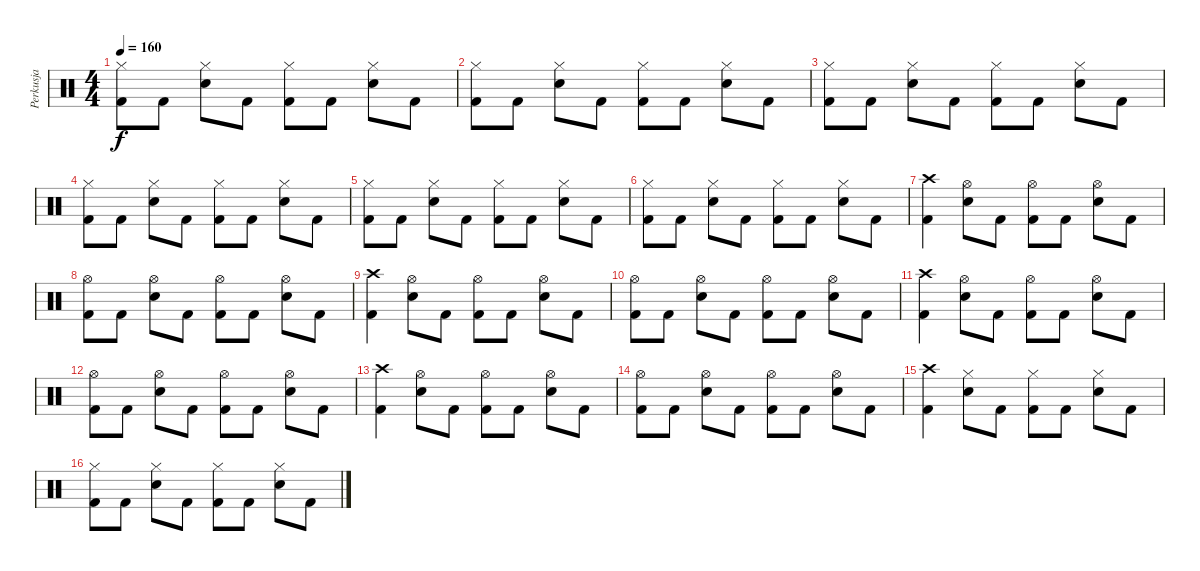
\track ("Perkusja" "Perkusja") {instrument percussion}
\staff {score}
\articulation defaults
\ts (4 4)
\tempo 160
\clef neutral
\ks c
("Hi-Hat (closed)" "Kick (hit) 2").8{dy f} "Kick (hit) 2".8 ("Hi-Hat (closed)" "Electric Snare (hit)").8 "Kick (hit) 2".8 ("Hi-Hat (closed)" "Kick (hit) 2").8 "Kick (hit) 2".8 ("Hi-Hat (closed)" "Electric Snare (hit)").8 "Kick (hit) 2".8 |
("Hi-Hat (closed)" "Kick (hit) 2").8 "Kick (hit) 2".8 ("Hi-Hat (closed)" "Electric Snare (hit)").8 "Kick (hit) 2".8 ("Hi-Hat (closed)" "Kick (hit) 2").8 "Kick (hit) 2".8 ("Hi-Hat (closed)" "Electric Snare (hit)").8 "Kick (hit) 2".8 |
("Hi-Hat (closed)" "Kick (hit) 2").8 "Kick (hit) 2".8 ("Hi-Hat (closed)" "Electric Snare (hit)").8 "Kick (hit) 2".8 ("Hi-Hat (closed)" "Kick (hit) 2").8 "Kick (hit) 2".8 ("Hi-Hat (closed)" "Electric Snare (hit)").8 "Kick (hit) 2".8 |
("Hi-Hat (closed)" "Kick (hit) 2").8 "Kick (hit) 2".8 ("Hi-Hat (closed)" "Electric Snare (hit)").8 "Kick (hit) 2".8 ("Hi-Hat (closed)" "Kick (hit) 2").8 "Kick (hit) 2".8 ("Hi-Hat (closed)" "Electric Snare (hit)").8 "Kick (hit) 2".8 |
("Hi-Hat (closed)" "Kick (hit) 2").8 "Kick (hit) 2".8 ("Hi-Hat (closed)" "Electric Snare (hit)").8 "Kick (hit) 2".8 ("Hi-Hat (closed)" "Kick (hit) 2").8 "Kick (hit) 2".8 ("Hi-Hat (closed)" "Electric Snare (hit)").8 "Kick (hit) 2".8 |
("Hi-Hat (closed)" "Kick (hit) 2").8 "Kick (hit) 2".8 ("Hi-Hat (closed)" "Electric Snare (hit)").8 "Kick (hit) 2".8 ("Hi-Hat (closed)" "Kick (hit) 2").8 "Kick (hit) 2".8 ("Hi-Hat (closed)" "Electric Snare (hit)").8 "Kick (hit) 2".8 |
("Crash high (hit)" "Kick (hit) 2").4 ("Hi-Hat (open)" "Electric Snare (hit)").8 "Kick (hit) 2".8 ("Hi-Hat (open)" "Kick (hit) 2").8 "Kick (hit) 2".8 ("Hi-Hat (open)" "Electric Snare (hit)").8 "Kick (hit) 2".8 |
("Hi-Hat (open)" "Kick (hit) 2").8 "Kick (hit) 2".8 ("Hi-Hat (open)" "Electric Snare (hit)").8 "Kick (hit) 2".8 ("Hi-Hat (open)" "Kick (hit) 2").8 "Kick (hit) 2".8 ("Hi-Hat (open)" "Electric Snare (hit)").8 "Kick (hit) 2".8 |
("Crash high (hit)" "Kick (hit) 2").4 ("Hi-Hat (open)" "Electric Snare (hit)").8 "Kick (hit) 2".8 ("Hi-Hat (open)" "Kick (hit) 2").8 "Kick (hit) 2".8 ("Hi-Hat (open)" "Electric Snare (hit)").8 "Kick (hit) 2".8 |
("Hi-Hat (open)" "Kick (hit) 2").8 "Kick (hit) 2".8 ("Hi-Hat (open)" "Electric Snare (hit)").8 "Kick (hit) 2".8 ("Hi-Hat (open)" "Kick (hit) 2").8 "Kick (hit) 2".8 ("Hi-Hat (open)" "Electric Snare (hit)").8 "Kick (hit) 2".8 |
("Crash high (hit)" "Kick (hit) 2").4 ("Hi-Hat (open)" "Electric Snare (hit)").8 "Kick (hit) 2".8 ("Hi-Hat (open)" "Kick (hit) 2").8 "Kick (hit) 2".8 ("Hi-Hat (open)" "Electric Snare (hit)").8 "Kick (hit) 2".8 |
("Hi-Hat (open)" "Kick (hit) 2").8 "Kick (hit) 2".8 ("Hi-Hat (open)" "Electric Snare (hit)").8 "Kick (hit) 2".8 ("Hi-Hat (open)" "Kick (hit) 2").8 "Kick (hit) 2".8 ("Hi-Hat (open)" "Electric Snare (hit)").8 "Kick (hit) 2".8 |
("Crash high (hit)" "Kick (hit) 2").4 ("Hi-Hat (open)" "Electric Snare (hit)").8 "Kick (hit) 2".8 ("Hi-Hat (open)" "Kick (hit) 2").8 "Kick (hit) 2".8 ("Hi-Hat (open)" "Electric Snare (hit)").8 "Kick (hit) 2".8 |
("Hi-Hat (open)" "Kick (hit) 2").8 "Kick (hit) 2".8 ("Hi-Hat (open)" "Electric Snare (hit)").8 "Kick (hit) 2".8 ("Hi-Hat (open)" "Kick (hit) 2").8 "Kick (hit) 2".8 ("Hi-Hat (open)" "Electric Snare (hit)").8 "Kick (hit) 2".8 |
("Crash high (hit)" "Kick (hit) 2").4 ("Hi-Hat (closed)" "Electric Snare (hit)").8 "Kick (hit) 2".8 ("Hi-Hat (closed)" "Kick (hit) 2").8 "Kick (hit) 2".8 ("Hi-Hat (closed)" "Electric Snare (hit)").8 "Kick (hit) 2".8 |
("Hi-Hat (closed)" "Kick (hit) 2").8 "Kick (hit) 2".8 ("Hi-Hat (closed)" "Electric Snare (hit)").8 "Kick (hit) 2".8 ("Hi-Hat (closed)" "Kick (hit) 2").8 "Kick (hit) 2".8 ("Hi-Hat (closed)" "Electric Snare (hit)").8 "Kick (hit) 2".8
